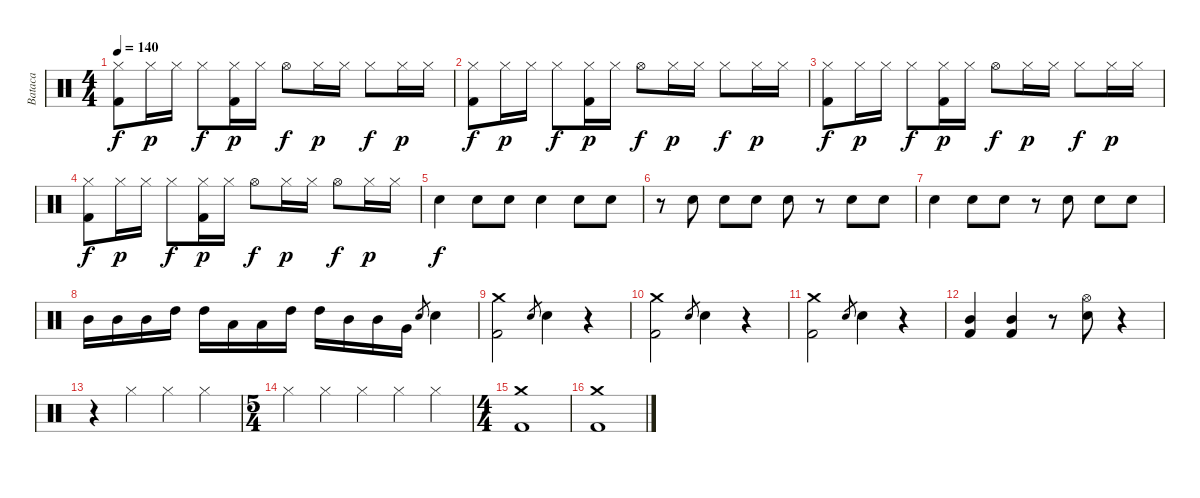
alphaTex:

\track ("Bataca" "Bataca") {instrument percussion}
\staff {score}
\articulation defaults
\ts (4 4)
\tempo 140
\clef neutral
\ks c
("Hi-Hat (closed)" "Kick (hit) 2").8{dy f} "Hi-Hat (closed)".16{dy p} "Hi-Hat (closed)".16 "Hi-Hat (closed)".8{dy f} ("Hi-Hat (closed)" "Kick (hit) 2").16{dy p} "Hi-Hat (closed)".16 "Hi-Hat (open)".8{dy f} "Hi-Hat (closed)".16{dy p} "Hi-Hat (closed)".16 "Hi-Hat (closed)".8{dy f} "Hi-Hat (closed)".16{dy p} "Hi-Hat (closed)".16 |
("Hi-Hat (closed)" "Kick (hit) 2").8{dy f} "Hi-Hat (closed)".16{dy p} "Hi-Hat (closed)".16 "Hi-Hat (closed)".8{dy f} ("Hi-Hat (closed)" "Kick (hit) 2").16{dy p} "Hi-Hat (closed)".16 "Hi-Hat (open)".8{dy f} "Hi-Hat (closed)".16{dy p} "Hi-Hat (closed)".16 "Hi-Hat (closed)".8{dy f} "Hi-Hat (closed)".16{dy p} "Hi-Hat (closed)".16 |
("Hi-Hat (closed)" "Kick (hit) 2").8{dy f} "Hi-Hat (closed)".16{dy p} "Hi-Hat (closed)".16 "Hi-Hat (closed)".8{dy f} ("Hi-Hat (closed)" "Kick (hit) 2").16{dy p} "Hi-Hat (closed)".16 "Hi-Hat (open)".8{dy f} "Hi-Hat (closed)".16{dy p} "Hi-Hat (closed)".16 "Hi-Hat (closed)".8{dy f} "Hi-Hat (closed)".16{dy p} "Hi-Hat (closed)".16 |
("Hi-Hat (closed)" "Kick (hit) 2").8{dy f} "Hi-Hat (closed)".16{dy p} "Hi-Hat (closed)".16 "Hi-Hat (closed)".8{dy f} ("Hi-Hat (closed)" "Kick (hit) 2").16{dy p} "Hi-Hat (closed)".16 "Hi-Hat (open)".8{dy f} "Hi-Hat (closed)".16{dy p} "Hi-Hat (closed)".16 "Hi-Hat (open)".8{dy f} "Hi-Hat (closed)".16{dy p} "Hi-Hat (closed)".16 |
"Electric Snare (hit)".4{dy f} "Electric Snare (hit)".8 "Electric Snare (hit)".8 "Electric Snare (hit)".4 "Electric Snare (hit)".8 "Electric Snare (hit)".8 |
r.8 "Electric Snare (hit)".8 "Electric Snare (hit)".8 "Electric Snare (hit)".8 "Electric Snare (hit)".8 r.8 "Electric Snare (hit)".8 "Electric Snare (hit)".8 |
"Electric Snare (hit)".4 "Electric Snare (hit)".8 "Electric Snare (hit)".8 r.8 "Electric Snare (hit)".8 "Electric Snare (hit)".8 "Electric Snare (hit)".8 |
"Mid Tom (hit)".16 "Mid Tom (hit)".16 "Mid Tom (hit)".16 "High Tom (hit)".16 "High Tom (hit)".16 "Low Tom (hit)".16 "Low Tom (hit)".16 "High Tom (hit)".16 "High Tom (hit)".16 "Mid Tom (hit)".16 "Mid Tom (hit)".16 "Very Low Tom (hit)".16 "Electric Snare (hit)".8{gr} "Electric Snare (hit)".4 |
("Crash medium (hit)" "Kick (hit) 2").2 "Electric Snare (hit)".8{gr} "Electric Snare (hit)".4 r.4 |
("Crash medium (hit)" "Kick (hit) 2").2 "Electric Snare (hit)".8{gr} "Electric Snare (hit)".4 r.4 |
("Crash medium (hit)" "Kick (hit) 2").2 "Electric Snare (hit)".8{gr} "Electric Snare (hit)".4 r.4 |
("Mid Tom (hit)" "Kick (hit) 2").4 ("Mid Tom (hit)" "Kick (hit) 2").4 r.8 ("Hi-Hat (open)" "Electric Snare (hit)").8 r.4 |
r.4 "Hi-Hat (closed)".4 "Hi-Hat (closed)".4 "Hi-Hat (closed)".4 |
\ts (5 4)
"Hi-Hat (closed)".4 "Hi-Hat (closed)".4 "Hi-Hat (closed)".4 "Hi-Hat (closed)".4 "Hi-Hat (closed)".4 |
\ts (4 4)
("Crash medium (hit)" "Kick (hit) 2").1 |
("Crash medium (hit)" "Kick (hit) 2").1
